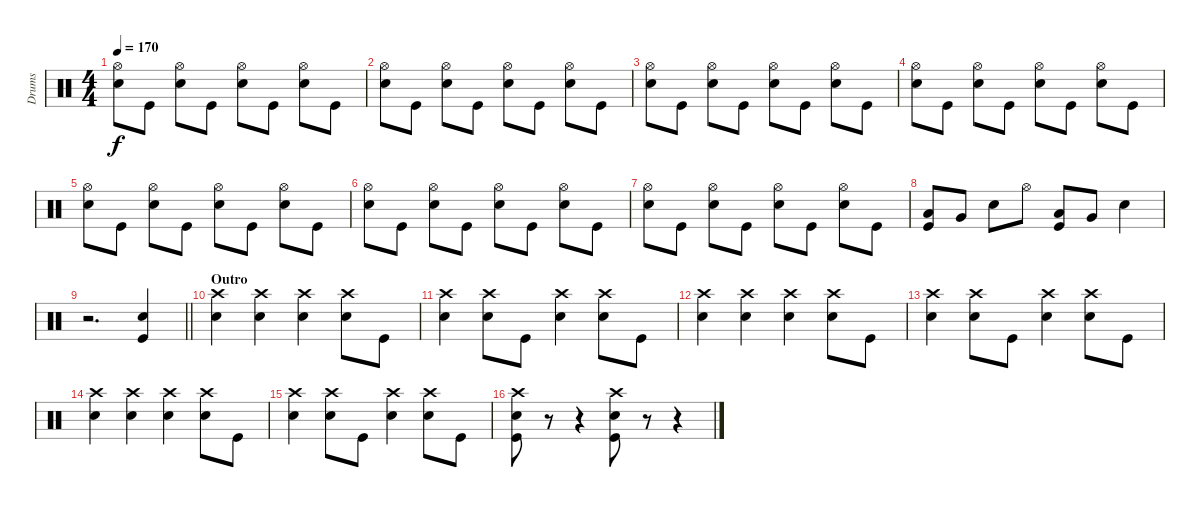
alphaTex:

\track ("Drums" "Drums") {instrument percussion}
\staff {score}
\articulation defaults
\ts (4 4)
\tempo 170
\clef neutral
\ks c
("Hi-Hat (open)" "Snare (hit) 2").8{dy f volume 13} "Kick (hit)".8 ("Hi-Hat (open)" "Snare (hit) 2").8 "Kick (hit)".8 ("Hi-Hat (open)" "Snare (hit) 2").8 "Kick (hit)".8 ("Hi-Hat (open)" "Snare (hit) 2").8 "Kick (hit)".8 |
("Hi-Hat (open)" "Snare (hit) 2").8 "Kick (hit)".8 ("Hi-Hat (open)" "Snare (hit) 2").8 "Kick (hit)".8 ("Hi-Hat (open)" "Snare (hit) 2").8 "Kick (hit)".8 ("Hi-Hat (open)" "Snare (hit) 2").8 "Kick (hit)".8 |
("Hi-Hat (open)" "Snare (hit) 2").8 "Kick (hit)".8 ("Hi-Hat (open)" "Snare (hit) 2").8 "Kick (hit)".8 ("Hi-Hat (open)" "Snare (hit) 2").8 "Kick (hit)".8 ("Hi-Hat (open)" "Snare (hit) 2").8 "Kick (hit)".8 |
("Hi-Hat (open)" "Snare (hit) 2").8 "Kick (hit)".8 ("Hi-Hat (open)" "Snare (hit) 2").8 "Kick (hit)".8 ("Hi-Hat (open)" "Snare (hit) 2").8 "Kick (hit)".8 ("Hi-Hat (open)" "Snare (hit) 2").8 "Kick (hit)".8 |
("Hi-Hat (open)" "Snare (hit) 2").8 "Kick (hit)".8 ("Hi-Hat (open)" "Snare (hit) 2").8 "Kick (hit)".8 ("Hi-Hat (open)" "Snare (hit) 2").8 "Kick (hit)".8 ("Hi-Hat (open)" "Snare (hit) 2").8 "Kick (hit)".8 |
("Hi-Hat (open)" "Snare (hit) 2").8 "Kick (hit)".8 ("Hi-Hat (open)" "Snare (hit) 2").8 "Kick (hit)".8 ("Hi-Hat (open)" "Snare (hit) 2").8 "Kick (hit)".8 ("Hi-Hat (open)" "Snare (hit) 2").8 "Kick (hit)".8 |
("Hi-Hat (open)" "Snare (hit) 2").8 "Kick (hit)".8 ("Hi-Hat (open)" "Snare (hit) 2").8 "Kick (hit)".8 ("Hi-Hat (open)" "Snare (hit) 2").8 "Kick (hit)".8 ("Hi-Hat (open)" "Snare (hit) 2").8 "Kick (hit)".8 |
("Low Tom (hit)" "Kick (hit)").8 "Very Low Tom (hit)".8 "Snare (hit) 2".8 "Hi-Hat (open)".8 ("Low Tom (hit)" "Kick (hit)").8 "Very Low Tom (hit)".8 "Snare (hit) 2".4 |
\barLineRight lightlight
r.2{d} ("Snare (hit) 2" "Kick (hit)").4 |
\section ("" "Outro")
("Crash high (hit)" "Snare (hit) 2").4 ("Crash high (hit)" "Snare (hit) 2").4 ("Crash high (hit)" "Snare (hit) 2").4 ("Crash high (hit)" "Snare (hit) 2").8 "Kick (hit)".8 |
("Crash high (hit)" "Snare (hit) 2").4 ("Crash high (hit)" "Snare (hit) 2").8 "Kick (hit)".8 ("Crash high (hit)" "Snare (hit) 2").4 ("Crash high (hit)" "Snare (hit) 2").8 "Kick (hit)".8 |
("Crash high (hit)" "Snare (hit) 2").4 ("Crash high (hit)" "Snare (hit) 2").4 ("Crash high (hit)" "Snare (hit) 2").4 ("Crash high (hit)" "Snare (hit) 2").8 "Kick (hit)".8 |
("Crash high (hit)" "Snare (hit) 2").4 ("Crash high (hit)" "Snare (hit) 2").8 "Kick (hit)".8 ("Crash high (hit)" "Snare (hit) 2").4 ("Crash high (hit)" "Snare (hit) 2").8 "Kick (hit)".8 |
("Crash high (hit)" "Snare (hit) 2").4 ("Crash high (hit)" "Snare (hit) 2").4 ("Crash high (hit)" "Snare (hit) 2").4 ("Crash high (hit)" "Snare (hit) 2").8 "Kick (hit)".8 |
("Crash high (hit)" "Snare (hit) 2").4 ("Crash high (hit)" "Snare (hit) 2").8 "Kick (hit)".8 ("Crash high (hit)" "Snare (hit) 2").4 ("Crash high (hit)" "Snare (hit) 2").8 "Kick (hit)".8 |
("Crash high (hit)" "Snare (hit) 2" "Kick (hit)").8 r.8 r.4 ("Crash high (hit)" "Snare (hit) 2" "Kick (hit)").8 r.8 r.4
